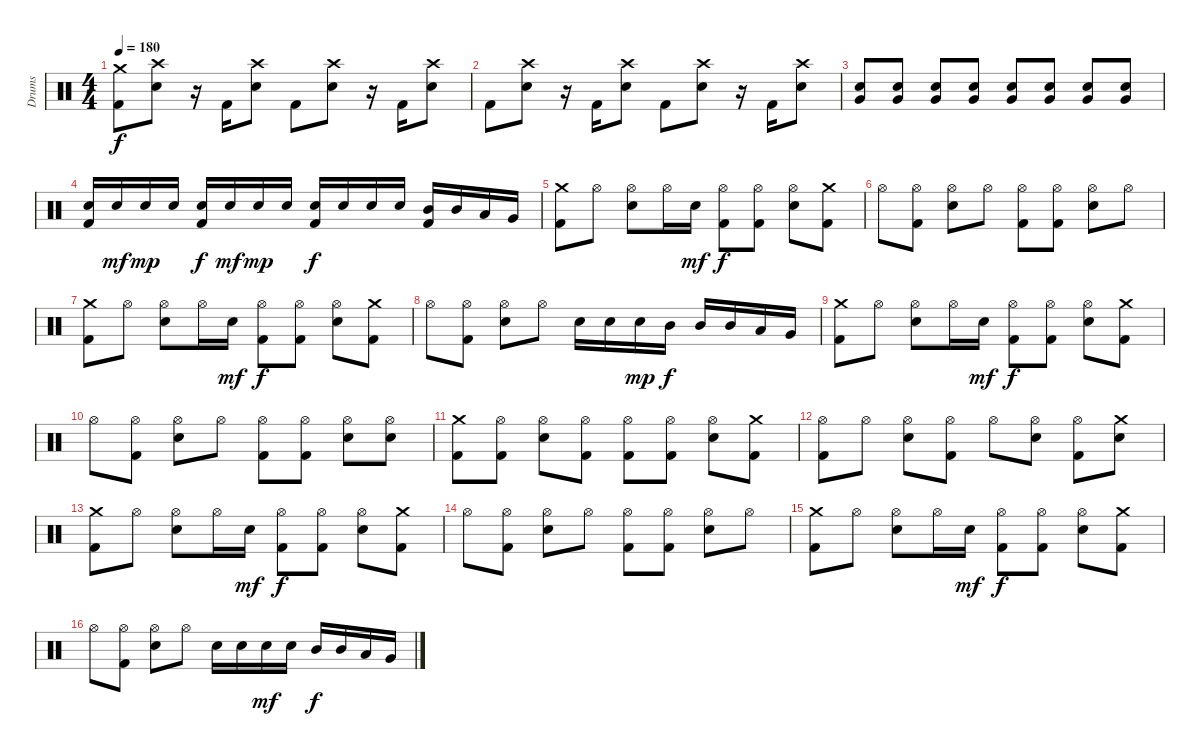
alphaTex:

\track ("Drums" "Drums") {instrument percussion}
\staff {score}
\articulation defaults
\ts (4 4)
\tempo 180
\clef neutral
\ks c
("Crash medium (hit)" "Kick (hit) 2").8{dy f} ("Crash high (hit)" "Electric Snare (hit)").8 r.16 "Kick (hit) 2".16 ("Crash high (hit)" "Electric Snare (hit)").8 "Kick (hit) 2".8 ("Crash high (hit)" "Electric Snare (hit)").8 r.16 "Kick (hit) 2".16 ("Crash high (hit)" "Electric Snare (hit)").8 |
"Kick (hit) 2".8 ("Crash high (hit)" "Electric Snare (hit)").8 r.16 "Kick (hit) 2".16 ("Crash high (hit)" "Electric Snare (hit)").8 "Kick (hit) 2".8 ("Crash high (hit)" "Electric Snare (hit)").8 r.16 "Kick (hit) 2".16 ("Crash high (hit)" "Electric Snare (hit)").8 |
("Very Low Tom (hit)" "Electric Snare (hit)").8 ("Very Low Tom (hit)" "Electric Snare (hit)").8 ("Very Low Tom (hit)" "Electric Snare (hit)").8 ("Very Low Tom (hit)" "Electric Snare (hit)").8 ("Very Low Tom (hit)" "Electric Snare (hit)").8 ("Very Low Tom (hit)" "Electric Snare (hit)").8 ("Very Low Tom (hit)" "Electric Snare (hit)").8 ("Very Low Tom (hit)" "Electric Snare (hit)").8 |
("Electric Snare (hit)" "Kick (hit) 2").16 "Electric Snare (hit)".16{dy mf} "Electric Snare (hit)".16{dy mp} "Electric Snare (hit)".16 ("Electric Snare (hit)" "Kick (hit) 2").16{dy f} "Electric Snare (hit)".16{dy mf} "Electric Snare (hit)".16{dy mp} "Electric Snare (hit)".16 ("Electric Snare (hit)" "Kick (hit) 2").16{dy f} "Electric Snare (hit)".16 "Electric Snare (hit)".16 "Electric Snare (hit)".16 ("Mid Tom (hit)" "Kick (hit) 2").16 "Mid Tom (hit)".16 "Low Tom (hit)".16 "Very Low Tom (hit)".16 |
("Crash medium (hit)" "Kick (hit) 2").8 "Hi-Hat (open)".8 ("Hi-Hat (open)" "Electric Snare (hit)").8 "Hi-Hat (open)".16 "Electric Snare (hit)".16{dy mf} ("Hi-Hat (open)" "Kick (hit) 2").8{dy f} ("Hi-Hat (open)" "Kick (hit) 2").8 ("Hi-Hat (open)" "Electric Snare (hit)").8 ("Crash medium (hit)" "Kick (hit) 2").8 |
"Hi-Hat (open)".8 ("Hi-Hat (open)" "Kick (hit) 2").8 ("Hi-Hat (open)" "Electric Snare (hit)").8 "Hi-Hat (open)".8 ("Hi-Hat (open)" "Kick (hit) 2").8 ("Hi-Hat (open)" "Kick (hit) 2").8 ("Hi-Hat (open)" "Electric Snare (hit)").8 "Hi-Hat (open)".8 |
("Crash medium (hit)" "Kick (hit) 2").8 "Hi-Hat (open)".8 ("Hi-Hat (open)" "Electric Snare (hit)").8 "Hi-Hat (open)".16 "Electric Snare (hit)".16{dy mf} ("Hi-Hat (open)" "Kick (hit) 2").8{dy f} ("Hi-Hat (open)" "Kick (hit) 2").8 ("Hi-Hat (open)" "Electric Snare (hit)").8 ("Crash medium (hit)" "Kick (hit) 2").8 |
"Hi-Hat (open)".8 ("Hi-Hat (open)" "Kick (hit) 2").8 ("Hi-Hat (open)" "Electric Snare (hit)").8 "Hi-Hat (open)".8 "Electric Snare (hit)".16 "Electric Snare (hit)".16 "Electric Snare (hit)".16{dy mp} "Mid Tom (hit)".16{dy f} "Mid Tom (hit)".16 "Mid Tom (hit)".16 "Low Tom (hit)".16 "Very Low Tom (hit)".16 |
("Crash medium (hit)" "Kick (hit) 2").8 "Hi-Hat (open)".8 ("Hi-Hat (open)" "Electric Snare (hit)").8 "Hi-Hat (open)".16 "Electric Snare (hit)".16{dy mf} ("Hi-Hat (open)" "Kick (hit) 2").8{dy f} ("Hi-Hat (open)" "Kick (hit) 2").8 ("Hi-Hat (open)" "Electric Snare (hit)").8 ("Crash medium (hit)" "Kick (hit) 2").8 |
"Hi-Hat (open)".8 ("Hi-Hat (open)" "Kick (hit) 2").8 ("Hi-Hat (open)" "Electric Snare (hit)").8 "Hi-Hat (open)".8 ("Hi-Hat (open)" "Kick (hit) 2").8 ("Hi-Hat (open)" "Kick (hit) 2").8 ("Hi-Hat (open)" "Electric Snare (hit)").8 ("Hi-Hat (open)" "Electric Snare (hit)").8 |
("Crash medium (hit)" "Kick (hit) 2").8 ("Hi-Hat (open)" "Kick (hit) 2").8 ("Hi-Hat (open)" "Electric Snare (hit)").8 ("Hi-Hat (open)" "Kick (hit) 2").8 ("Hi-Hat (open)" "Kick (hit) 2").8 ("Hi-Hat (open)" "Kick (hit) 2").8 ("Hi-Hat (open)" "Electric Snare (hit)").8 ("Crash medium (hit)" "Kick (hit) 2").8 |
("Hi-Hat (open)" "Kick (hit) 2").8 "Hi-Hat (open)".8 ("Hi-Hat (open)" "Electric Snare (hit)").8 ("Hi-Hat (open)" "Kick (hit) 2").8 "Hi-Hat (open)".8 ("Hi-Hat (open)" "Electric Snare (hit)").8 ("Hi-Hat (open)" "Kick (hit) 2").8 ("Crash medium (hit)" "Electric Snare (hit)").8 |
("Crash medium (hit)" "Kick (hit) 2").8 "Hi-Hat (open)".8 ("Hi-Hat (open)" "Electric Snare (hit)").8 "Hi-Hat (open)".16 "Electric Snare (hit)".16{dy mf} ("Hi-Hat (open)" "Kick (hit) 2").8{dy f} ("Hi-Hat (open)" "Kick (hit) 2").8 ("Hi-Hat (open)" "Electric Snare (hit)").8 ("Crash medium (hit)" "Kick (hit) 2").8 |
"Hi-Hat (open)".8 ("Hi-Hat (open)" "Kick (hit) 2").8 ("Hi-Hat (open)" "Electric Snare (hit)").8 "Hi-Hat (open)".8 ("Hi-Hat (open)" "Kick (hit) 2").8 ("Hi-Hat (open)" "Kick (hit) 2").8 ("Hi-Hat (open)" "Electric Snare (hit)").8 "Hi-Hat (open)".8 |
("Crash medium (hit)" "Kick (hit) 2").8 "Hi-Hat (open)".8 ("Hi-Hat (open)" "Electric Snare (hit)").8 "Hi-Hat (open)".16 "Electric Snare (hit)".16{dy mf} ("Hi-Hat (open)" "Kick (hit) 2").8{dy f} ("Hi-Hat (open)" "Kick (hit) 2").8 ("Hi-Hat (open)" "Electric Snare (hit)").8 ("Crash medium (hit)" "Kick (hit) 2").8 |
"Hi-Hat (open)".8 ("Hi-Hat (open)" "Kick (hit) 2").8 ("Hi-Hat (open)" "Electric Snare (hit)").8 "Hi-Hat (open)".8 "Electric Snare (hit)".16 "Electric Snare (hit)".16 "Electric Snare (hit)".16{dy mf} "Electric Snare (hit)".16 "Mid Tom (hit)".16{dy f} "Mid Tom (hit)".16 "Low Tom (hit)".16 "Very Low Tom (hit)".16
